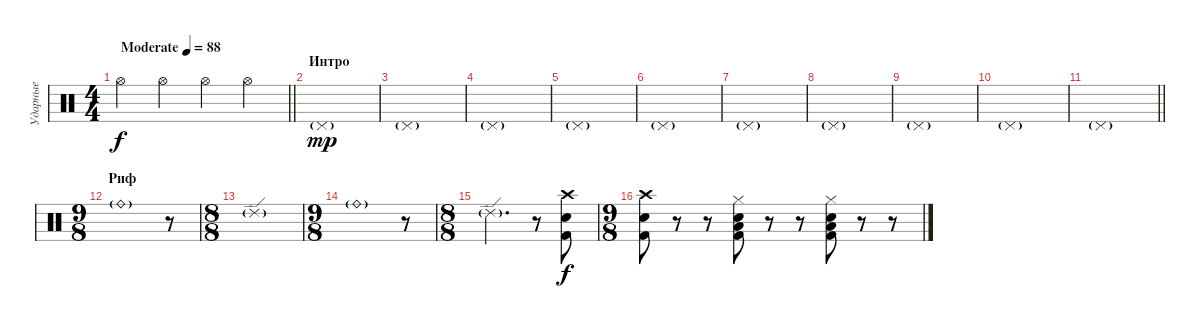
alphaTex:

\track ("Ударные" "Ударные") {instrument percussion}
\staff {score}
\articulation defaults
\ts (4 4)
\tempo (88 "Moderate")
\clef neutral
\barLineRight lightlight
\ks c "Hi-Hat (open)".4{dy f} "Hi-Hat (open)".4 "Hi-Hat (open)".4 "Hi-Hat (open)".4
|
\section ("" "Интро")
"Pedal Hi-Hat (hit)"{g}.1{dy mp} |
"Pedal Hi-Hat (hit)"{g}.1 |
"Pedal Hi-Hat (hit)"{g}.1 |
"Pedal Hi-Hat (hit)"{g}.1 |
"Pedal Hi-Hat (hit)"{g}.1 |
"Pedal Hi-Hat (hit)"{g}.1 |
"Pedal Hi-Hat (hit)"{g}.1 |
"Pedal Hi-Hat (hit)"{g}.1 |
"Pedal Hi-Hat (hit)"{g}.1 |
\barLineRight lightlight "Pedal Hi-Hat (hit)"{g}.1
|
\ts (9 8)
\section ("" "Риф")
"Ride (bell)"{g}.1 r.8 |
\ts (8 8)
"Ride (edge) 2"{g}.1 |
\ts (9 8)
"Ride (bell)"{g}.1 r.8 |
\ts (8 8)
"Ride (edge) 2"{g}.2{d} r.8 ("Crash high (hit)" "Snare (hit) 2" "Kick (hit) 2").8{dy f} |
\ts (9 8)
("Crash high (hit)" "Snare (hit) 2" "Kick (hit) 2").8 r.8 r.8 ("Hi-Hat (closed)" "Low Floor Tom (hit)" "Snare (hit) 2" "Kick (hit) 2").8 r.8 r.8 ("Hi-Hat (closed)" "Low Floor Tom (hit)" "Snare (hit) 2" "Kick (hit) 2").8 r.8 r.8
